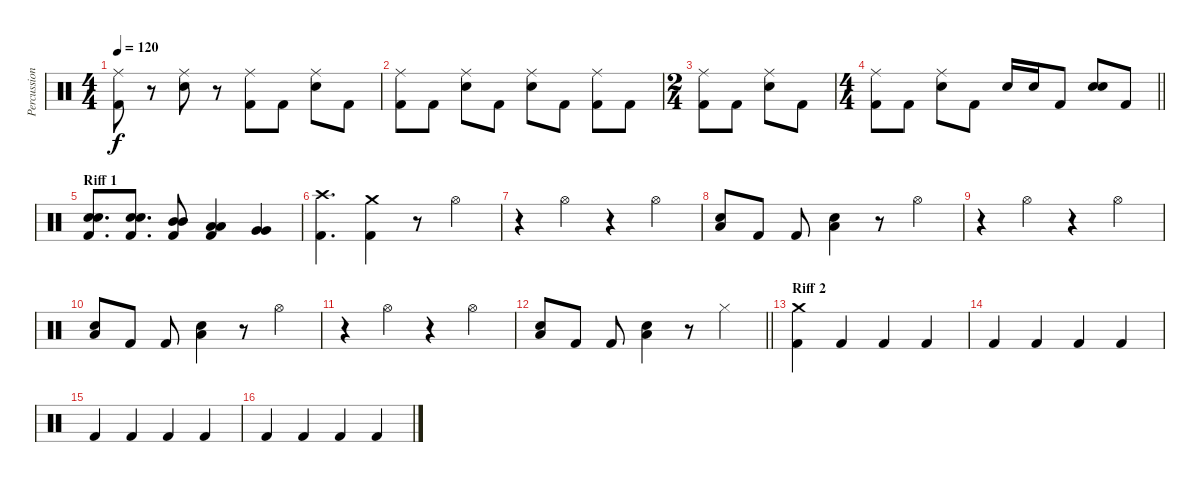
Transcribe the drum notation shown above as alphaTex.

\track ("Percussion" "Percussion") {instrument percussion}
\staff {score}
\articulation defaults
\ts (4 4)
\tempo 120
\clef neutral
\ks c
("Ride (middle)" "Kick (hit) 2").8{dy f} r.8 ("Ride (middle)" "Snare (hit) 2").8 r.8 ("Ride (middle)" "Kick (hit) 2").8 "Kick (hit) 2".8 ("Ride (middle)" "Snare (hit) 2").8 "Kick (hit) 2".8 |
("Ride (middle)" "Kick (hit) 2").8 "Kick (hit) 2".8 ("Ride (middle)" "Snare (hit) 2").8 "Kick (hit) 2".8 ("Ride (middle)" "Snare (hit) 2").8 "Kick (hit) 2".8 ("Ride (middle)" "Kick (hit) 2").8 "Kick (hit) 2".8 |
\ts (2 4)
("Ride (middle)" "Kick (hit) 2").8 "Kick (hit) 2".8 ("Ride (middle)" "Snare (hit) 2").8 "Kick (hit) 2".8 |
\ts (4 4)
\barLineRight lightlight
("Ride (middle)" "Kick (hit) 2").8 "Kick (hit) 2".8 ("Ride (middle)" "Snare (hit) 2").8 "Kick (hit) 2".8 "Snare (hit) 2".16 "Snare (hit) 2".16 "Kick (hit) 2".8 ("Snare (hit) 2" "Snare (hit) 2").8 "Kick (hit) 2".8 |
\section ("" "Riff 1")
("Snare (hit) 2" "Snare (hit) 2" "Kick (hit) 2").8{d} ("Snare (hit) 2" "Snare (hit) 2" "Kick (hit) 2").8{d} ("Mid Tom (hit)" "Mid Tom (hit)" "Kick (hit) 2").8 ("Low Tom (hit)" "Low Tom (hit)" "Kick (hit) 2").4 ("Very Low Tom (hit)" "Very Low Tom (hit)").4 |
("Crash high (hit)" "Kick (hit) 2").4{d} ("Crash medium (hit)" "Kick (hit) 2").4 r.8 "Hi-Hat (open)".4 |
r.4 "Hi-Hat (open)".4 r.4 "Hi-Hat (open)".4 |
("Snare (hit) 2" "Low Tom (hit)").8 "Kick (hit) 2".8 "Kick (hit) 2".8 ("Snare (hit) 2" "Low Tom (hit)").4 r.8 "Hi-Hat (open)".4 |
r.4 "Hi-Hat (open)".4 r.4 "Hi-Hat (open)".4 |
("Snare (hit) 2" "Low Tom (hit)").8 "Kick (hit) 2".8 "Kick (hit) 2".8 ("Snare (hit) 2" "Low Tom (hit)").4 r.8 "Hi-Hat (open)".4 |
r.4 "Hi-Hat (open)".4 r.4 "Hi-Hat (open)".4 |
\barLineRight lightlight
("Snare (hit) 2" "Low Tom (hit)").8 "Kick (hit) 2".8 "Kick (hit) 2".8 ("Snare (hit) 2" "Low Tom (hit)").4 r.8 "Hi-Hat (closed)".4 |
\section ("" "Riff 2")
("Crash medium (hit)" "Kick (hit) 2").4 "Kick (hit) 2".4 "Kick (hit) 2".4 "Kick (hit) 2".4 |
"Kick (hit) 2".4 "Kick (hit) 2".4 "Kick (hit) 2".4 "Kick (hit) 2".4 |
"Kick (hit) 2".4 "Kick (hit) 2".4 "Kick (hit) 2".4 "Kick (hit) 2".4 |
"Kick (hit) 2".4 "Kick (hit) 2".4 "Kick (hit) 2".4 "Kick (hit) 2".4
